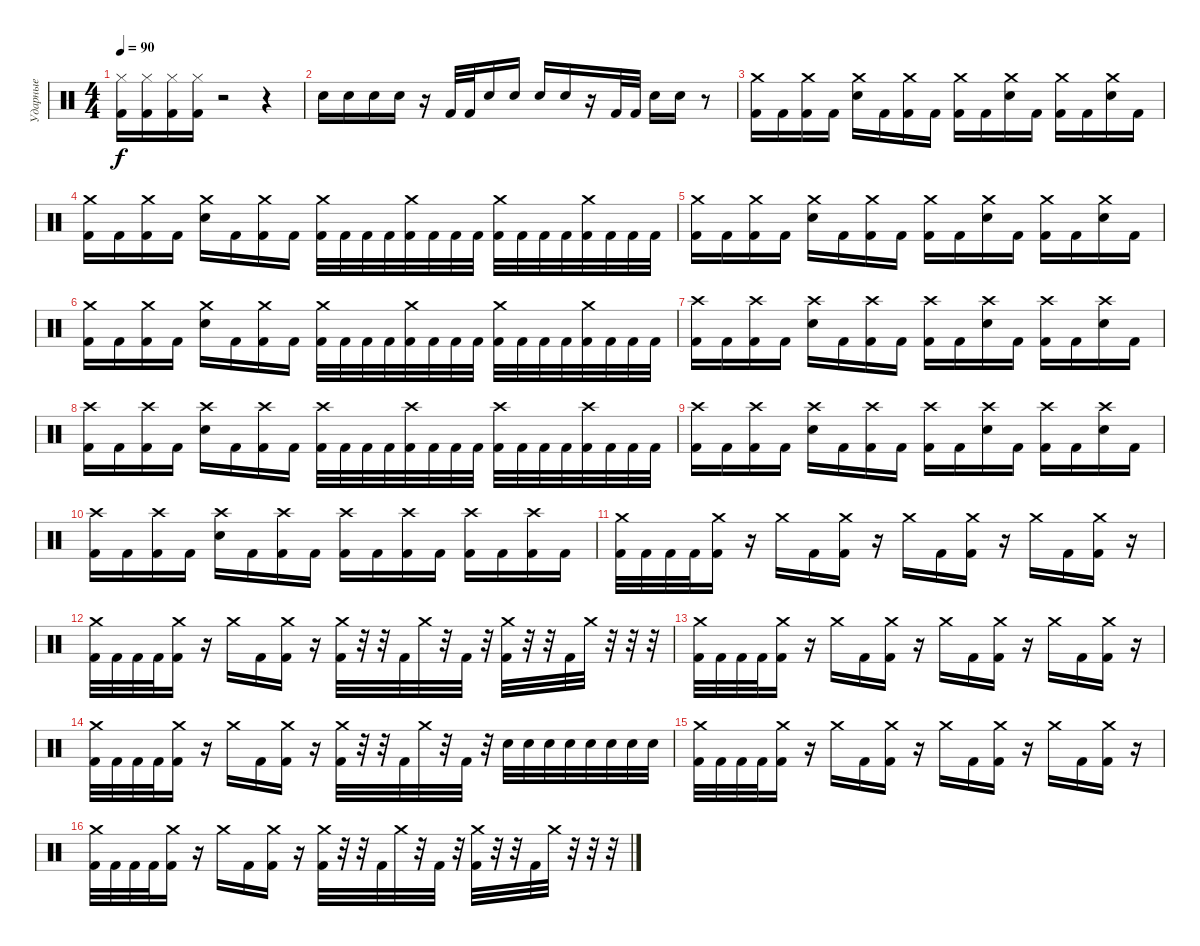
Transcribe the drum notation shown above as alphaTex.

\track ("Ударные" "Ударные") {instrument percussion}
\staff {score}
\articulation defaults
\ts (4 4)
\tempo 90
\clef neutral
\ks c
("Hi-Hat (closed)" "Kick (hit) 2").16{dy f} ("Hi-Hat (closed)" "Kick (hit) 2").16 ("Hi-Hat (closed)" "Kick (hit) 2").16 ("Hi-Hat (closed)" "Kick (hit) 2").16 r.2 r.4 |
"Electric Snare (hit)".16 "Electric Snare (hit)".16 "Electric Snare (hit)".16 "Electric Snare (hit)".16 r.16 "Kick (hit) 2".32 "Kick (hit) 2".32 "Electric Snare (hit)".16 "Electric Snare (hit)".16 "Electric Snare (hit)".16 "Electric Snare (hit)".16 r.16 "Kick (hit) 2".32 "Kick (hit) 2".32 "Electric Snare (hit)".16 "Electric Snare (hit)".16 r.8 |
("Crash medium (hit)" "Kick (hit) 2").16 "Kick (hit) 2".16 ("Crash medium (hit)" "Kick (hit) 2").16 "Kick (hit) 2".16 ("Crash medium (hit)" "Electric Snare (hit)").16 "Kick (hit) 2".16 ("Crash medium (hit)" "Kick (hit) 2").16 "Kick (hit) 2".16 ("Crash medium (hit)" "Kick (hit) 2").16 "Kick (hit) 2".16 ("Crash medium (hit)" "Electric Snare (hit)").16 "Kick (hit) 2".16 ("Crash medium (hit)" "Kick (hit) 2").16 "Kick (hit) 2".16 ("Crash medium (hit)" "Electric Snare (hit)").16 "Kick (hit) 2".16 |
("Crash medium (hit)" "Kick (hit) 2").16 "Kick (hit) 2".16 ("Crash medium (hit)" "Kick (hit) 2").16 "Kick (hit) 2".16 ("Crash medium (hit)" "Electric Snare (hit)").16 "Kick (hit) 2".16 ("Crash medium (hit)" "Kick (hit) 2").16 "Kick (hit) 2".16 ("Crash medium (hit)" "Kick (hit) 2").32 "Kick (hit) 2".32 "Kick (hit) 2".32 "Kick (hit) 2".32 ("Crash medium (hit)" "Kick (hit) 2").32 "Kick (hit) 2".32 "Kick (hit) 2".32 "Kick (hit) 2".32 ("Crash medium (hit)" "Kick (hit) 2").32 "Kick (hit) 2".32 "Kick (hit) 2".32 "Kick (hit) 2".32 ("Crash medium (hit)" "Kick (hit) 2").32 "Kick (hit) 2".32 "Kick (hit) 2".32 "Kick (hit) 2".32 |
("Crash medium (hit)" "Kick (hit) 2").16 "Kick (hit) 2".16 ("Crash medium (hit)" "Kick (hit) 2").16 "Kick (hit) 2".16 ("Crash medium (hit)" "Electric Snare (hit)").16 "Kick (hit) 2".16 ("Crash medium (hit)" "Kick (hit) 2").16 "Kick (hit) 2".16 ("Crash medium (hit)" "Kick (hit) 2").16 "Kick (hit) 2".16 ("Crash medium (hit)" "Electric Snare (hit)").16 "Kick (hit) 2".16 ("Crash medium (hit)" "Kick (hit) 2").16 "Kick (hit) 2".16 ("Crash medium (hit)" "Electric Snare (hit)").16 "Kick (hit) 2".16 |
("Crash medium (hit)" "Kick (hit) 2").16 "Kick (hit) 2".16 ("Crash medium (hit)" "Kick (hit) 2").16 "Kick (hit) 2".16 ("Crash medium (hit)" "Electric Snare (hit)").16 "Kick (hit) 2".16 ("Crash medium (hit)" "Kick (hit) 2").16 "Kick (hit) 2".16 ("Crash medium (hit)" "Kick (hit) 2").32 "Kick (hit) 2".32 "Kick (hit) 2".32 "Kick (hit) 2".32 ("Crash medium (hit)" "Kick (hit) 2").32 "Kick (hit) 2".32 "Kick (hit) 2".32 "Kick (hit) 2".32 ("Crash medium (hit)" "Kick (hit) 2").32 "Kick (hit) 2".32 "Kick (hit) 2".32 "Kick (hit) 2".32 ("Crash medium (hit)" "Kick (hit) 2").32 "Kick (hit) 2".32 "Kick (hit) 2".32 "Kick (hit) 2".32 |
("Crash high (hit)" "Kick (hit) 2").16 "Kick (hit) 2".16 ("Crash high (hit)" "Kick (hit) 2").16 "Kick (hit) 2".16 ("Crash high (hit)" "Electric Snare (hit)").16 "Kick (hit) 2".16 ("Crash high (hit)" "Kick (hit) 2").16 "Kick (hit) 2".16 ("Crash high (hit)" "Kick (hit) 2").16 "Kick (hit) 2".16 ("Crash high (hit)" "Electric Snare (hit)").16 "Kick (hit) 2".16 ("Crash high (hit)" "Kick (hit) 2").16 "Kick (hit) 2".16 ("Crash high (hit)" "Electric Snare (hit)").16 "Kick (hit) 2".16 |
("Crash high (hit)" "Kick (hit) 2").16 "Kick (hit) 2".16 ("Crash high (hit)" "Kick (hit) 2").16 "Kick (hit) 2".16 ("Crash high (hit)" "Electric Snare (hit)").16 "Kick (hit) 2".16 ("Crash high (hit)" "Kick (hit) 2").16 "Kick (hit) 2".16 ("Crash high (hit)" "Kick (hit) 2").32 "Kick (hit) 2".32 "Kick (hit) 2".32 "Kick (hit) 2".32 ("Crash high (hit)" "Kick (hit) 2").32 "Kick (hit) 2".32 "Kick (hit) 2".32 "Kick (hit) 2".32 ("Crash high (hit)" "Kick (hit) 2").32 "Kick (hit) 2".32 "Kick (hit) 2".32 "Kick (hit) 2".32 ("Crash high (hit)" "Kick (hit) 2").32 "Kick (hit) 2".32 "Kick (hit) 2".32 "Kick (hit) 2".32 |
("Crash high (hit)" "Kick (hit) 2").16 "Kick (hit) 2".16 ("Crash high (hit)" "Kick (hit) 2").16 "Kick (hit) 2".16 ("Crash high (hit)" "Electric Snare (hit)").16 "Kick (hit) 2".16 ("Crash high (hit)" "Kick (hit) 2").16 "Kick (hit) 2".16 ("Crash high (hit)" "Kick (hit) 2").16 "Kick (hit) 2".16 ("Crash high (hit)" "Electric Snare (hit)").16 "Kick (hit) 2".16 ("Crash high (hit)" "Kick (hit) 2").16 "Kick (hit) 2".16 ("Crash high (hit)" "Electric Snare (hit)").16 "Kick (hit) 2".16 |
("Crash high (hit)" "Kick (hit) 2").16 "Kick (hit) 2".16 ("Crash high (hit)" "Kick (hit) 2").16 "Kick (hit) 2".16 ("Crash high (hit)" "Electric Snare (hit)").16 "Kick (hit) 2".16 ("Crash high (hit)" "Kick (hit) 2").16 "Kick (hit) 2".16 ("Crash high (hit)" "Kick (hit) 2").16 "Kick (hit) 2".16 ("Crash high (hit)" "Kick (hit) 2").16 "Kick (hit) 2".16 ("Crash high (hit)" "Kick (hit) 2").16 "Kick (hit) 2".16 ("Crash high (hit)" "Kick (hit) 2").16 "Kick (hit) 2".16 |
("Crash medium (hit)" "Kick (hit) 2").32 "Kick (hit) 2".32 "Kick (hit) 2".32 "Kick (hit) 2".32 ("Crash medium (hit)" "Kick (hit) 2").16 r.16 "Crash medium (hit)".16 "Kick (hit) 2".16 ("Crash medium (hit)" "Kick (hit) 2").16 r.16 "Crash medium (hit)".16 "Kick (hit) 2".16 ("Crash medium (hit)" "Kick (hit) 2").16 r.16 "Crash medium (hit)".16 "Kick (hit) 2".16 ("Crash medium (hit)" "Kick (hit) 2").16 r.16 |
("Crash medium (hit)" "Kick (hit) 2").32 "Kick (hit) 2".32 "Kick (hit) 2".32 "Kick (hit) 2".32 ("Crash medium (hit)" "Kick (hit) 2").16 r.16 "Crash medium (hit)".16 "Kick (hit) 2".16 ("Crash medium (hit)" "Kick (hit) 2").16 r.16 ("Crash medium (hit)" "Kick (hit) 2").32 r.32 r.32 "Kick (hit) 2".32 "Crash medium (hit)".32 r.32 "Kick (hit) 2".32 r.32 ("Crash medium (hit)" "Kick (hit) 2").32 r.32 r.32 "Kick (hit) 2".32 "Crash medium (hit)".32 r.32 r.32 r.32 |
("Crash medium (hit)" "Kick (hit) 2").32 "Kick (hit) 2".32 "Kick (hit) 2".32 "Kick (hit) 2".32 ("Crash medium (hit)" "Kick (hit) 2").16 r.16 "Crash medium (hit)".16 "Kick (hit) 2".16 ("Crash medium (hit)" "Kick (hit) 2").16 r.16 "Crash medium (hit)".16 "Kick (hit) 2".16 ("Crash medium (hit)" "Kick (hit) 2").16 r.16 "Crash medium (hit)".16 "Kick (hit) 2".16 ("Crash medium (hit)" "Kick (hit) 2").16 r.16 |
("Crash medium (hit)" "Kick (hit) 2").32 "Kick (hit) 2".32 "Kick (hit) 2".32 "Kick (hit) 2".32 ("Crash medium (hit)" "Kick (hit) 2").16 r.16 "Crash medium (hit)".16 "Kick (hit) 2".16 ("Crash medium (hit)" "Kick (hit) 2").16 r.16 ("Crash medium (hit)" "Kick (hit) 2").32 r.32 r.32 "Kick (hit) 2".32 "Crash medium (hit)".32 r.32 "Kick (hit) 2".32 r.32 "Electric Snare (hit)".32 "Electric Snare (hit)".32 "Electric Snare (hit)".32 "Electric Snare (hit)".32 "Electric Snare (hit)".32 "Electric Snare (hit)".32 "Electric Snare (hit)".32 "Electric Snare (hit)".32 |
("Crash medium (hit)" "Kick (hit) 2").32 "Kick (hit) 2".32 "Kick (hit) 2".32 "Kick (hit) 2".32 ("Crash medium (hit)" "Kick (hit) 2").16 r.16 "Crash medium (hit)".16 "Kick (hit) 2".16 ("Crash medium (hit)" "Kick (hit) 2").16 r.16 "Crash medium (hit)".16 "Kick (hit) 2".16 ("Crash medium (hit)" "Kick (hit) 2").16 r.16 "Crash medium (hit)".16 "Kick (hit) 2".16 ("Crash medium (hit)" "Kick (hit) 2").16 r.16 |
("Crash medium (hit)" "Kick (hit) 2").32 "Kick (hit) 2".32 "Kick (hit) 2".32 "Kick (hit) 2".32 ("Crash medium (hit)" "Kick (hit) 2").16 r.16 "Crash medium (hit)".16 "Kick (hit) 2".16 ("Crash medium (hit)" "Kick (hit) 2").16 r.16 ("Crash medium (hit)" "Kick (hit) 2").32 r.32 r.32 "Kick (hit) 2".32 "Crash medium (hit)".32 r.32 "Kick (hit) 2".32 r.32 ("Crash medium (hit)" "Kick (hit) 2").32 r.32 r.32 "Kick (hit) 2".32 "Crash medium (hit)".32 r.32 r.32 r.32
